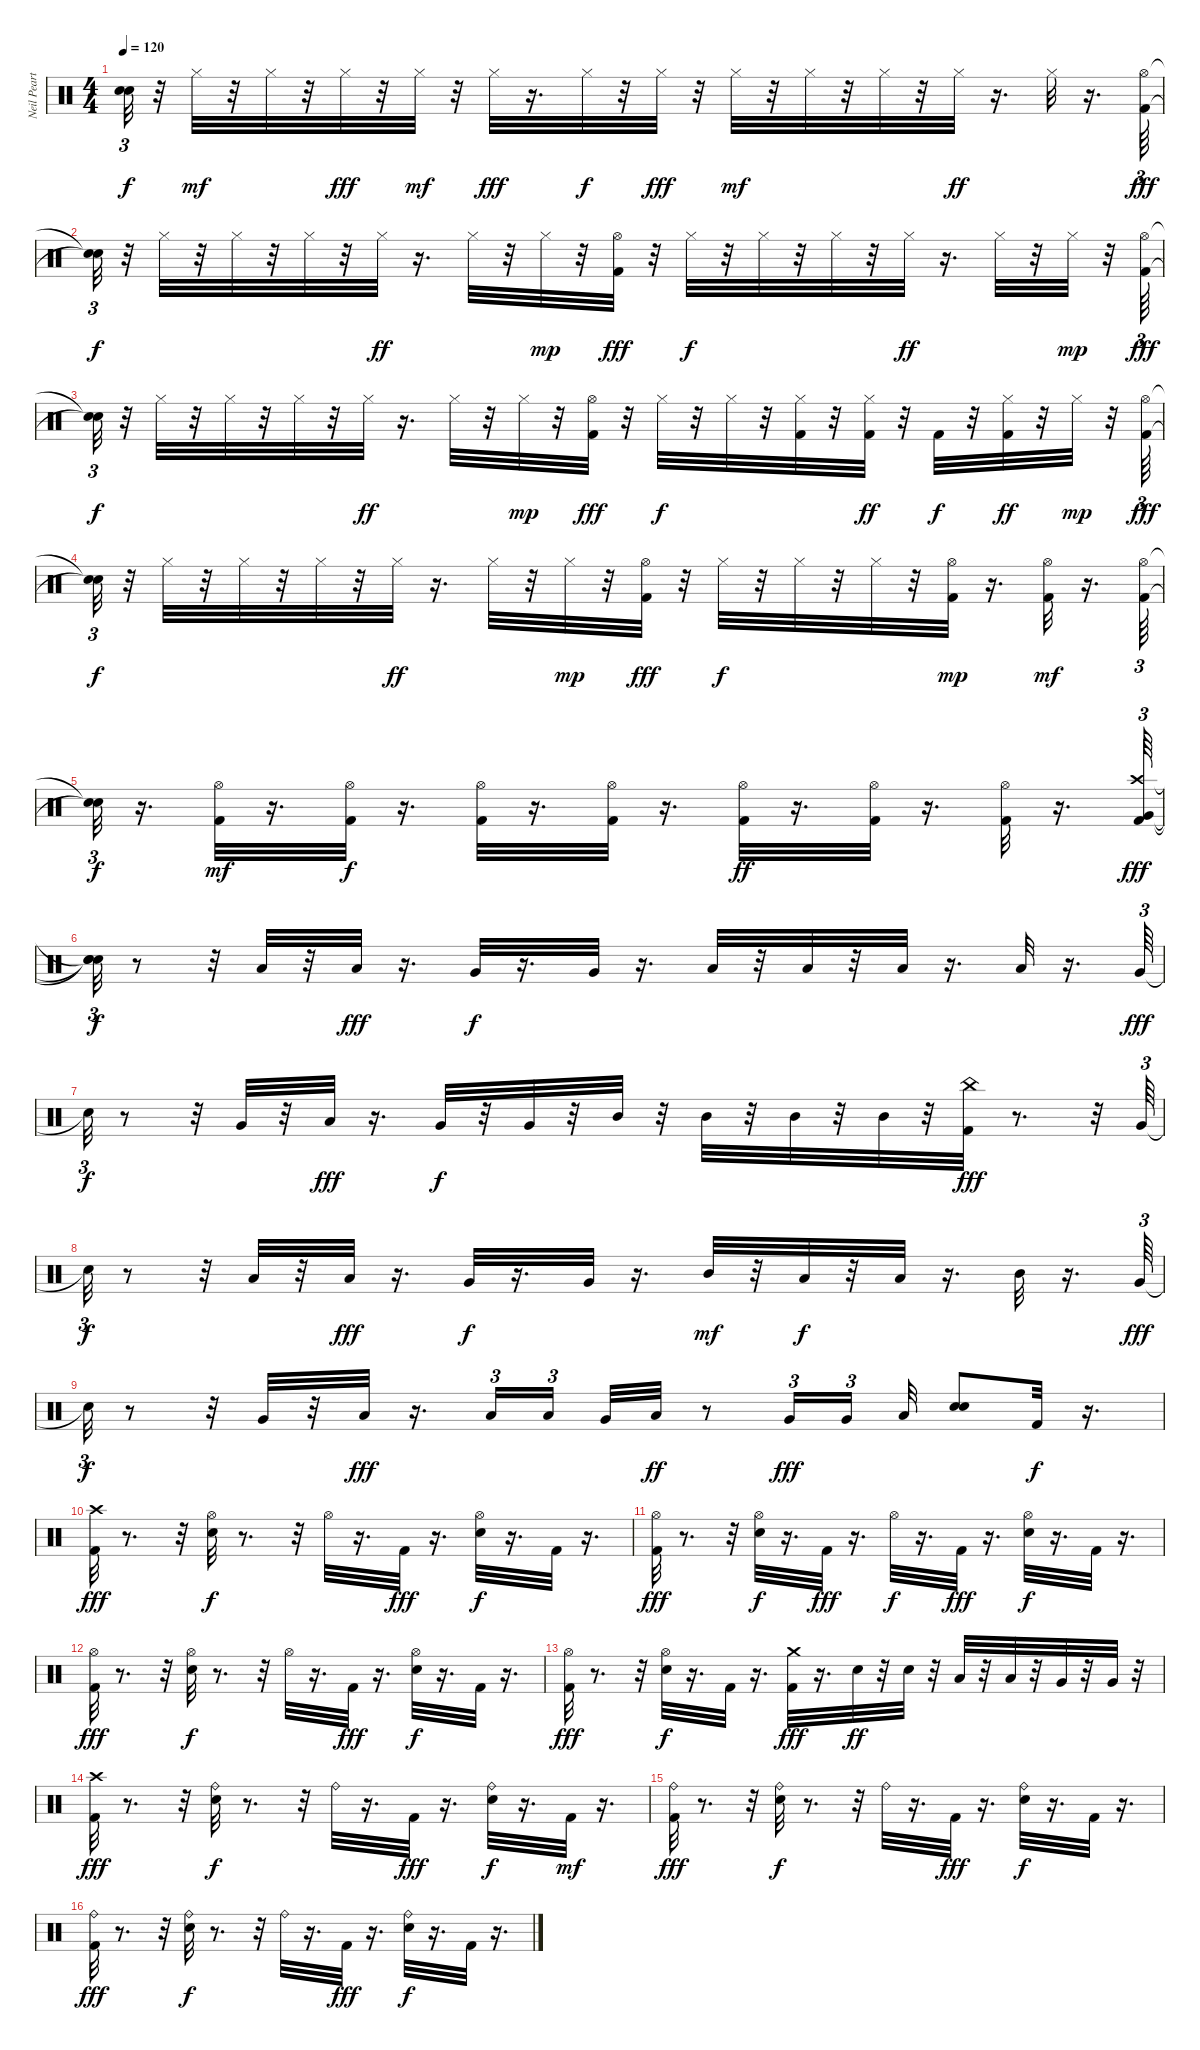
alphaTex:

\track ("Neil Peart" "Neil Peart") {instrument percussion}
\staff {score}
\articulation defaults
\ts (4 4)
\tempo 120
\clef neutral
\ks c
("Snare (hit)"{t} "Snare (hit)"{t}).32{tu (3 2) dy f} r.32 "Hi-Hat (closed)".32{dy mf} r.32 "Hi-Hat (closed)".32 r.32 "Hi-Hat (closed)".32{dy fff} r.32 "Hi-Hat (closed)".32{dy mf} r.32 "Hi-Hat (closed)".32{dy fff} r.16{d} "Hi-Hat (closed)".32{dy f} r.32 "Hi-Hat (closed)".32{dy fff} r.32 "Hi-Hat (closed)".32{dy mf} r.32 "Hi-Hat (closed)".32 r.32 "Hi-Hat (closed)".32 r.32 "Hi-Hat (closed)".32{dy ff} r.16{d} "Hi-Hat (closed)".32 r.16{d} ("Hi-Hat (open)" "Kick (hit) 2").64{tu (3 2) dy fff} |
("Snare (hit)"{t} "Snare (hit)"{t}).32{tu (3 2) dy f} r.32 "Hi-Hat (closed)".32 r.32 "Hi-Hat (closed)".32 r.32 "Hi-Hat (closed)".32 r.32 "Hi-Hat (closed)".32{dy ff} r.16{d} "Hi-Hat (closed)".32 r.32 "Hi-Hat (closed)".32{dy mp} r.32 ("Hi-Hat (open)" "Kick (hit) 2").32{dy fff} r.32 "Hi-Hat (closed)".32{dy f} r.32 "Hi-Hat (closed)".32 r.32 "Hi-Hat (closed)".32 r.32 "Hi-Hat (closed)".32{dy ff} r.16{d} "Hi-Hat (closed)".32 r.32 "Hi-Hat (closed)".32{dy mp} r.32 ("Hi-Hat (open)" "Kick (hit) 2").64{tu (3 2) dy fff} |
("Snare (hit)"{t} "Snare (hit)"{t}).32{tu (3 2) dy f} r.32 "Hi-Hat (closed)".32 r.32 "Hi-Hat (closed)".32 r.32 "Hi-Hat (closed)".32 r.32 "Hi-Hat (closed)".32{dy ff} r.16{d} "Hi-Hat (closed)".32 r.32 "Hi-Hat (closed)".32{dy mp} r.32 ("Hi-Hat (open)" "Kick (hit) 2").32{dy fff} r.32 "Hi-Hat (closed)".32{dy f} r.32 "Hi-Hat (closed)".32 r.32 ("Kick (hit) 2" "Hi-Hat (closed)").32 r.32 ("Kick (hit) 2" "Hi-Hat (closed)").32{dy ff} r.32 "Kick (hit) 2".32{dy f} r.32 ("Kick (hit) 2" "Hi-Hat (closed)").32{dy ff} r.32 "Hi-Hat (closed)".32{dy mp} r.32 ("Hi-Hat (open)" "Kick (hit) 2").64{tu (3 2) dy fff} |
("Snare (hit)"{t} "Snare (hit)"{t}).32{tu (3 2) dy f} r.32 "Hi-Hat (closed)".32 r.32 "Hi-Hat (closed)".32 r.32 "Hi-Hat (closed)".32 r.32 "Hi-Hat (closed)".32{dy ff} r.16{d} "Hi-Hat (closed)".32 r.32 "Hi-Hat (closed)".32{dy mp} r.32 ("Hi-Hat (open)" "Kick (hit) 2").32{dy fff} r.32 "Hi-Hat (closed)".32{dy f} r.32 "Hi-Hat (closed)".32 r.32 "Hi-Hat (closed)".32 r.32 ("Hi-Hat (open)" "Kick (hit) 2").32{dy mp} r.16{d} ("Hi-Hat (open)" "Kick (hit) 2").32{dy mf} r.16{d} ("Hi-Hat (open)" "Kick (hit) 2").64{tu (3 2)} |
("Snare (hit)"{t} "Snare (hit)"{t}).32{tu (3 2) dy f} r.16{d} ("Hi-Hat (open)" "Kick (hit) 2").32{dy mf} r.16{d} ("Hi-Hat (open)" "Kick (hit) 2").32{dy f} r.16{d} ("Hi-Hat (open)" "Kick (hit) 2").32 r.16{d} ("Hi-Hat (open)" "Kick (hit) 2").32 r.16{d} ("Hi-Hat (open)" "Kick (hit) 2").32{dy ff} r.16{d} ("Hi-Hat (open)" "Kick (hit) 2").32 r.16{d} ("Hi-Hat (open)" "Kick (hit) 2").32 r.16{d} ("Crash high (hit)" "Kick (hit) 2" "Very Low Tom (hit)").64{tu (3 2) dy fff} |
("Snare (hit)"{t} "Snare (hit)"{t} "Snare (hit)"{t}).32{tu (3 2) dy f} r.8 r.32 "Low Floor Tom (hit)".32 r.32 "Low Floor Tom (hit)".32{dy fff} r.16{d} "Very Low Tom (hit)".32{dy f} r.16{d} "Very Low Tom (hit)".32 r.16{d} "Low Tom (hit)".32 r.32 "Low Tom (hit)".32 r.32 "Low Tom (hit)".32 r.16{d} "Low Floor Tom (hit)".32 r.16{d} "Very Low Tom (hit)".64{tu (3 2) dy fff} |
"Snare (hit)"{t}.32{tu (3 2) dy f} r.8 r.32 "Very Low Tom (hit)".32 r.32 "Low Floor Tom (hit)".32{dy fff} r.16{d} "Very Low Tom (hit)".32{dy f} r.32 "Very Low Tom (hit)".32 r.32 "Mid Tom (hit)".32 r.32 "Mid Tom (hit)".32 r.32 "Mid Tom (hit)".32 r.32 "Mid Tom (hit)".32 r.32 ("Kick (hit) 2" "China (hit)").32{dy fff} r.8{d} r.32 "Very Low Tom (hit)".64{tu (3 2)} |
"Snare (hit)"{t}.32{tu (3 2) dy f} r.8 r.32 "Low Floor Tom (hit)".32 r.32 "Low Floor Tom (hit)".32{dy fff} r.16{d} "Very Low Tom (hit)".32{dy f} r.16{d} "Very Low Tom (hit)".32 r.16{d} "Mid Tom (hit)".32{dy mf} r.32 "Low Tom (hit)".32{dy f} r.32 "Low Tom (hit)".32 r.16{d} "Mid Tom (hit)".32 r.16{d} "Very Low Tom (hit)".64{tu (3 2) dy fff} |
"Snare (hit)"{t}.32{tu (3 2) dy f} r.8 r.32 "Very Low Tom (hit)".32 r.32 "Low Floor Tom (hit)".32{dy fff} r.16{d} "Low Tom (hit)".16{tu (3 2)} "Low Tom (hit)".16{tu (3 2) beam splitsecondary} "Very Low Tom (hit)".32 "Low Floor Tom (hit)".32{dy ff} r.8 "Very Low Tom (hit)".16{tu (3 2) dy fff} "Very Low Tom (hit)".16{tu (3 2) beam splitsecondary} "Low Floor Tom (hit)".32 ("Snare (hit) 2" "Snare (hit) 2").8 "Kick (hit) 2".32{dy f} r.16{d} |
("Crash high (hit)" "Kick (hit) 2").32{dy fff} r.8{d} r.32 ("Hi-Hat (open)" "Snare (hit) 2").32{dy f} r.8{d} r.32 "Hi-Hat (open)".32 r.16{d} "Kick (hit) 2".32{dy fff} r.16{d} ("Hi-Hat (open)" "Snare (hit) 2").32{dy f} r.16{d} "Kick (hit) 2".32 r.16{d} |
("Hi-Hat (open)" "Kick (hit) 2").32{dy fff} r.8{d} r.32 ("Hi-Hat (open)" "Snare (hit) 2").32{dy f} r.16{d} "Kick (hit) 2".32{dy fff} r.16{d} "Hi-Hat (open)".32{dy f} r.16{d} "Kick (hit) 2".32{dy fff} r.16{d} ("Hi-Hat (open)" "Snare (hit) 2").32{dy f} r.16{d} "Kick (hit) 2".32 r.16{d} |
("Hi-Hat (open)" "Kick (hit) 2").32{dy fff} r.8{d} r.32 ("Snare (hit) 2" "Hi-Hat (open)").32{dy f} r.8{d} r.32 "Hi-Hat (open)".32 r.16{d} "Kick (hit) 2".32{dy fff} r.16{d} ("Snare (hit) 2" "Hi-Hat (open)").32{dy f} r.16{d} "Kick (hit) 2".32 r.16{d} |
("Hi-Hat (open)" "Kick (hit) 2").32{dy fff} r.8{d} r.32 ("Hi-Hat (open)" "Snare (hit) 2").32{dy f} r.16{d} "Kick (hit) 2".32 r.16{d} ("Crash medium (hit)" "Kick (hit) 2").32{dy fff} r.16{d} "Snare (hit) 2".32{dy ff} r.32 "Snare (hit) 2".32 r.32 "Low Tom (hit)".32 r.32 "Low Tom (hit)".32 r.32 "Very Low Tom (hit)".32 r.32 "Very Low Tom (hit)".32 r.32 |
("Crash high (hit)" "Kick (hit) 2").32{dy fff} r.8{d} r.32 ("Ride (bell)" "Snare (hit) 2").32{dy f} r.8{d} r.32 "Ride (bell)".32 r.16{d} "Kick (hit) 2".32{dy fff} r.16{d} ("Ride (bell)" "Snare (hit) 2").32{dy f} r.16{d} "Kick (hit) 2".32{dy mf} r.16{d} |
("Ride (bell)" "Kick (hit) 2").32{dy fff} r.8{d} r.32 ("Ride (bell)" "Snare (hit) 2").32{dy f} r.8{d} r.32 "Ride (bell)".32 r.16{d} "Kick (hit) 2".32{dy fff} r.16{d} ("Ride (bell)" "Snare (hit) 2").32{dy f} r.16{d} "Kick (hit) 2".32 r.16{d} |
("Ride (bell)" "Kick (hit) 2").32{dy fff} r.8{d} r.32 ("Ride (bell)" "Snare (hit) 2").32{dy f} r.8{d} r.32 "Ride (bell)".32 r.16{d} "Kick (hit) 2".32{dy fff} r.16{d} ("Ride (bell)" "Snare (hit) 2").32{dy f} r.16{d} "Kick (hit) 2".32 r.16{d}
